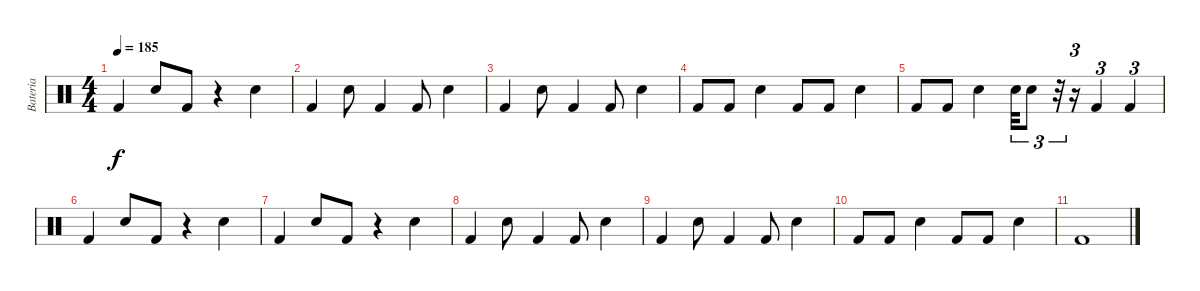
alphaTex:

\track ("Bateria" "Bateria") {instrument percussion}
\staff {score}
\articulation defaults
\ts (4 4)
\tempo 185
\clef neutral
\ks c "Kick (hit) 2".4{dy f} "Snare (hit) 2".8 "Kick (hit) 2".8
r.4 "Snare (hit) 2".4 |
"Kick (hit) 2".4 "Snare (hit) 2".8 "Kick (hit) 2".4 "Kick (hit) 2".8 "Snare (hit) 2".4 |
"Kick (hit) 2".4 "Snare (hit) 2".8 "Kick (hit) 2".4 "Kick (hit) 2".8 "Snare (hit) 2".4 |
"Kick (hit) 2".8 "Kick (hit) 2".8 "Snare (hit) 2".4 "Kick (hit) 2".8 "Kick (hit) 2".8 "Snare (hit) 2".4 |
"Kick (hit) 2".8 "Kick (hit) 2".8 "Snare (hit) 2".4 "Snare (hit) 2".32{tu (3 2)} "Snare (hit) 2".8{tu (3 2)} r.32{tu (3 2)} r.16{tu (3 2)} "Kick (hit) 2".4{tu (3 2)} "Kick (hit) 2".4{tu (3 2)} |
"Kick (hit) 2".4 "Snare (hit) 2".8 "Kick (hit) 2".8 r.4 "Snare (hit) 2".4 |
"Kick (hit) 2".4 "Snare (hit) 2".8 "Kick (hit) 2".8 r.4 "Snare (hit) 2".4 |
"Kick (hit) 2".4 "Snare (hit) 2".8 "Kick (hit) 2".4 "Kick (hit) 2".8 "Snare (hit) 2".4 |
"Kick (hit) 2".4 "Snare (hit) 2".8 "Kick (hit) 2".4 "Kick (hit) 2".8 "Snare (hit) 2".4 |
"Kick (hit) 2".8 "Kick (hit) 2".8 "Snare (hit) 2".4 "Kick (hit) 2".8 "Kick (hit) 2".8 "Snare (hit) 2".4 |
"Kick (hit) 2".1
